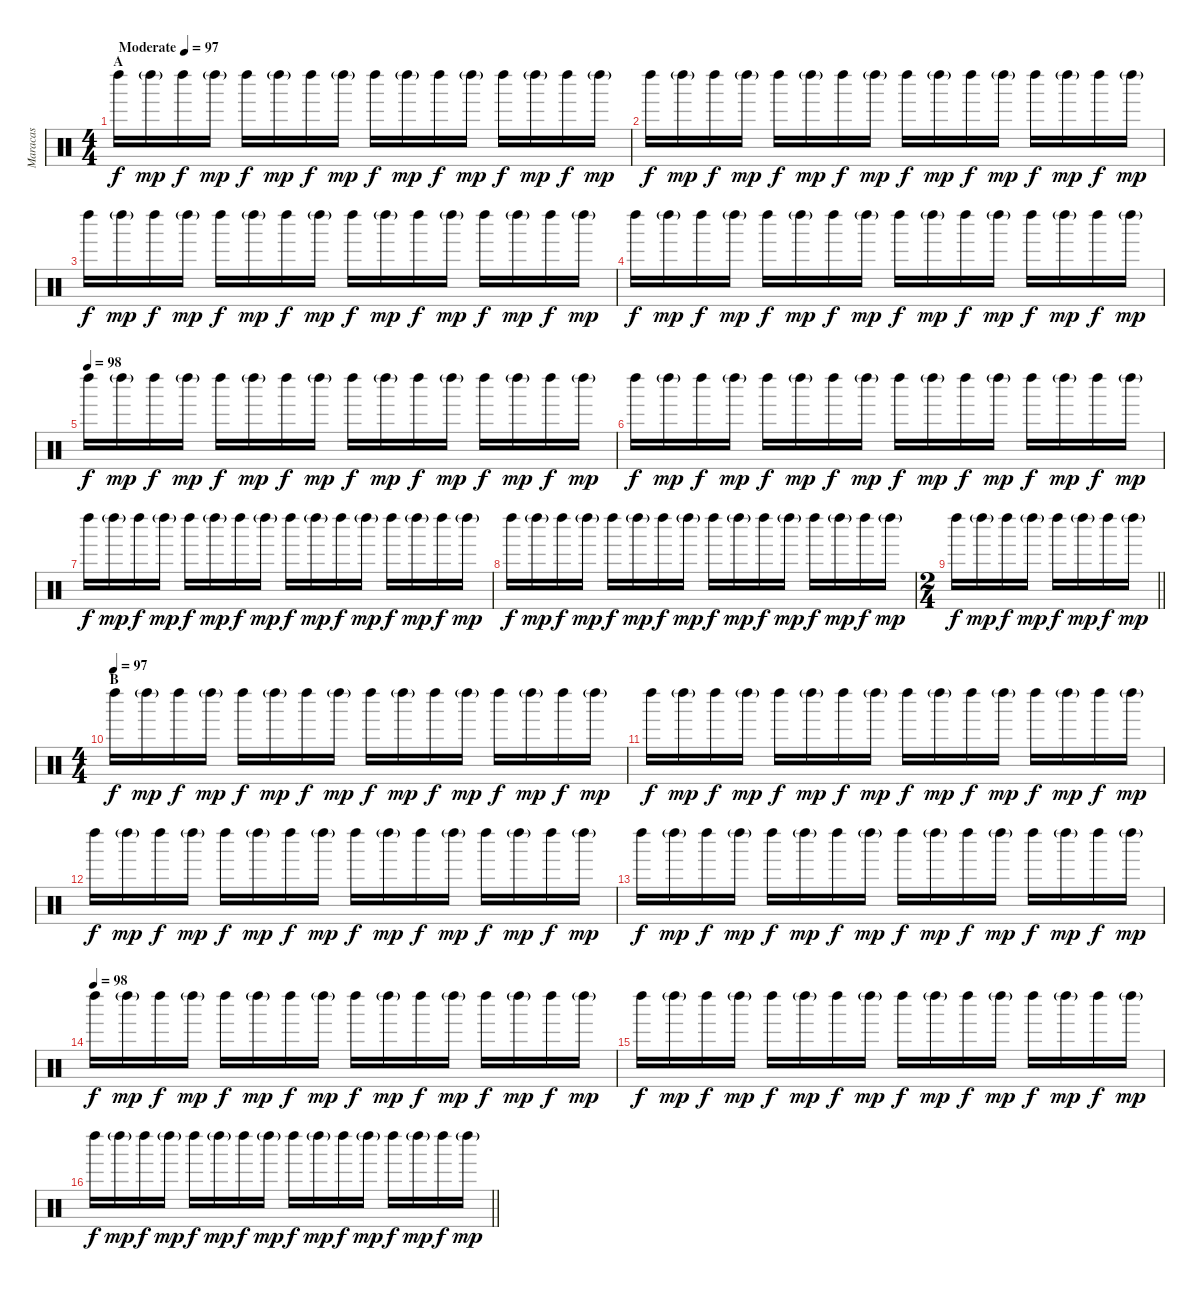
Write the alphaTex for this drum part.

\track ("Maracas" "Maracas") {instrument percussion}
\staff {score}
\articulation defaults
\ts (4 4)
\section ("" "A")
\tempo (97 "Moderate")
\clef neutral
\ks c "Left Maraca (hit)".16{dy f} "Left Maraca (hit)"{g}.16{dy mp} "Left Maraca (hit)".16{dy f} "Left Maraca (hit)"{g}.16{dy mp} "Left Maraca (hit)".16{dy f} "Left Maraca (hit)"{g}.16{dy mp} "Left Maraca (hit)".16{dy f} "Left Maraca (hit)"{g}.16{dy mp} "Left Maraca (hit)".16{dy f} "Left Maraca (hit)"{g}.16{dy mp} "Left Maraca (hit)".16{dy f} "Left Maraca (hit)"{g}.16{dy mp} "Left Maraca (hit)".16{dy f} "Left Maraca (hit)"{g}.16{dy mp} "Left Maraca (hit)".16{dy f} "Left Maraca (hit)"{g}.16{dy mp}
|
"Left Maraca (hit)".16{dy f} "Left Maraca (hit)"{g}.16{dy mp} "Left Maraca (hit)".16{dy f} "Left Maraca (hit)"{g}.16{dy mp} "Left Maraca (hit)".16{dy f} "Left Maraca (hit)"{g}.16{dy mp} "Left Maraca (hit)".16{dy f} "Left Maraca (hit)"{g}.16{dy mp} "Left Maraca (hit)".16{dy f} "Left Maraca (hit)"{g}.16{dy mp} "Left Maraca (hit)".16{dy f} "Left Maraca (hit)"{g}.16{dy mp} "Left Maraca (hit)".16{dy f} "Left Maraca (hit)"{g}.16{dy mp} "Left Maraca (hit)".16{dy f} "Left Maraca (hit)"{g}.16{dy mp} |
"Left Maraca (hit)".16{dy f} "Left Maraca (hit)"{g}.16{dy mp} "Left Maraca (hit)".16{dy f} "Left Maraca (hit)"{g}.16{dy mp} "Left Maraca (hit)".16{dy f} "Left Maraca (hit)"{g}.16{dy mp} "Left Maraca (hit)".16{dy f} "Left Maraca (hit)"{g}.16{dy mp} "Left Maraca (hit)".16{dy f} "Left Maraca (hit)"{g}.16{dy mp} "Left Maraca (hit)".16{dy f} "Left Maraca (hit)"{g}.16{dy mp} "Left Maraca (hit)".16{dy f} "Left Maraca (hit)"{g}.16{dy mp} "Left Maraca (hit)".16{dy f} "Left Maraca (hit)"{g}.16{dy mp} |
"Left Maraca (hit)".16{dy f} "Left Maraca (hit)"{g}.16{dy mp} "Left Maraca (hit)".16{dy f} "Left Maraca (hit)"{g}.16{dy mp} "Left Maraca (hit)".16{dy f} "Left Maraca (hit)"{g}.16{dy mp} "Left Maraca (hit)".16{dy f} "Left Maraca (hit)"{g}.16{dy mp} "Left Maraca (hit)".16{dy f} "Left Maraca (hit)"{g}.16{dy mp} "Left Maraca (hit)".16{dy f} "Left Maraca (hit)"{g}.16{dy mp} "Left Maraca (hit)".16{dy f} "Left Maraca (hit)"{g}.16{dy mp} "Left Maraca (hit)".16{dy f} "Left Maraca (hit)"{g}.16{dy mp} |
\tempo (98)
"Left Maraca (hit)".16{dy f} "Left Maraca (hit)"{g}.16{dy mp} "Left Maraca (hit)".16{dy f} "Left Maraca (hit)"{g}.16{dy mp} "Left Maraca (hit)".16{dy f} "Left Maraca (hit)"{g}.16{dy mp} "Left Maraca (hit)".16{dy f} "Left Maraca (hit)"{g}.16{dy mp} "Left Maraca (hit)".16{dy f} "Left Maraca (hit)"{g}.16{dy mp} "Left Maraca (hit)".16{dy f} "Left Maraca (hit)"{g}.16{dy mp} "Left Maraca (hit)".16{dy f} "Left Maraca (hit)"{g}.16{dy mp} "Left Maraca (hit)".16{dy f} "Left Maraca (hit)"{g}.16{dy mp} |
"Left Maraca (hit)".16{dy f} "Left Maraca (hit)"{g}.16{dy mp} "Left Maraca (hit)".16{dy f} "Left Maraca (hit)"{g}.16{dy mp} "Left Maraca (hit)".16{dy f} "Left Maraca (hit)"{g}.16{dy mp} "Left Maraca (hit)".16{dy f} "Left Maraca (hit)"{g}.16{dy mp} "Left Maraca (hit)".16{dy f} "Left Maraca (hit)"{g}.16{dy mp} "Left Maraca (hit)".16{dy f} "Left Maraca (hit)"{g}.16{dy mp} "Left Maraca (hit)".16{dy f} "Left Maraca (hit)"{g}.16{dy mp} "Left Maraca (hit)".16{dy f} "Left Maraca (hit)"{g}.16{dy mp} |
"Left Maraca (hit)".16{dy f} "Left Maraca (hit)"{g}.16{dy mp} "Left Maraca (hit)".16{dy f} "Left Maraca (hit)"{g}.16{dy mp} "Left Maraca (hit)".16{dy f} "Left Maraca (hit)"{g}.16{dy mp} "Left Maraca (hit)".16{dy f} "Left Maraca (hit)"{g}.16{dy mp} "Left Maraca (hit)".16{dy f} "Left Maraca (hit)"{g}.16{dy mp} "Left Maraca (hit)".16{dy f} "Left Maraca (hit)"{g}.16{dy mp} "Left Maraca (hit)".16{dy f} "Left Maraca (hit)"{g}.16{dy mp} "Left Maraca (hit)".16{dy f} "Left Maraca (hit)"{g}.16{dy mp} |
"Left Maraca (hit)".16{dy f} "Left Maraca (hit)"{g}.16{dy mp} "Left Maraca (hit)".16{dy f} "Left Maraca (hit)"{g}.16{dy mp} "Left Maraca (hit)".16{dy f} "Left Maraca (hit)"{g}.16{dy mp} "Left Maraca (hit)".16{dy f} "Left Maraca (hit)"{g}.16{dy mp} "Left Maraca (hit)".16{dy f} "Left Maraca (hit)"{g}.16{dy mp} "Left Maraca (hit)".16{dy f} "Left Maraca (hit)"{g}.16{dy mp} "Left Maraca (hit)".16{dy f} "Left Maraca (hit)"{g}.16{dy mp} "Left Maraca (hit)".16{dy f} "Left Maraca (hit)"{g}.16{dy mp} |
\ts (2 4)
\barLineRight lightlight "Left Maraca (hit)".16{dy f} "Left Maraca (hit)"{g}.16{dy mp} "Left Maraca (hit)".16{dy f} "Left Maraca (hit)"{g}.16{dy mp} "Left Maraca (hit)".16{dy f} "Left Maraca (hit)"{g}.16{dy mp} "Left Maraca (hit)".16{dy f} "Left Maraca (hit)"{g}.16{dy mp}
|
\ts (4 4)
\section ("" "B")
\tempo (97)
"Left Maraca (hit)".16{dy f} "Left Maraca (hit)"{g}.16{dy mp} "Left Maraca (hit)".16{dy f} "Left Maraca (hit)"{g}.16{dy mp} "Left Maraca (hit)".16{dy f} "Left Maraca (hit)"{g}.16{dy mp} "Left Maraca (hit)".16{dy f} "Left Maraca (hit)"{g}.16{dy mp} "Left Maraca (hit)".16{dy f} "Left Maraca (hit)"{g}.16{dy mp} "Left Maraca (hit)".16{dy f} "Left Maraca (hit)"{g}.16{dy mp} "Left Maraca (hit)".16{dy f} "Left Maraca (hit)"{g}.16{dy mp} "Left Maraca (hit)".16{dy f} "Left Maraca (hit)"{g}.16{dy mp} |
"Left Maraca (hit)".16{dy f} "Left Maraca (hit)"{g}.16{dy mp} "Left Maraca (hit)".16{dy f} "Left Maraca (hit)"{g}.16{dy mp} "Left Maraca (hit)".16{dy f} "Left Maraca (hit)"{g}.16{dy mp} "Left Maraca (hit)".16{dy f} "Left Maraca (hit)"{g}.16{dy mp} "Left Maraca (hit)".16{dy f} "Left Maraca (hit)"{g}.16{dy mp} "Left Maraca (hit)".16{dy f} "Left Maraca (hit)"{g}.16{dy mp} "Left Maraca (hit)".16{dy f} "Left Maraca (hit)"{g}.16{dy mp} "Left Maraca (hit)".16{dy f} "Left Maraca (hit)"{g}.16{dy mp} |
"Left Maraca (hit)".16{dy f} "Left Maraca (hit)"{g}.16{dy mp} "Left Maraca (hit)".16{dy f} "Left Maraca (hit)"{g}.16{dy mp} "Left Maraca (hit)".16{dy f} "Left Maraca (hit)"{g}.16{dy mp} "Left Maraca (hit)".16{dy f} "Left Maraca (hit)"{g}.16{dy mp} "Left Maraca (hit)".16{dy f} "Left Maraca (hit)"{g}.16{dy mp} "Left Maraca (hit)".16{dy f} "Left Maraca (hit)"{g}.16{dy mp} "Left Maraca (hit)".16{dy f} "Left Maraca (hit)"{g}.16{dy mp} "Left Maraca (hit)".16{dy f} "Left Maraca (hit)"{g}.16{dy mp} |
"Left Maraca (hit)".16{dy f} "Left Maraca (hit)"{g}.16{dy mp} "Left Maraca (hit)".16{dy f} "Left Maraca (hit)"{g}.16{dy mp} "Left Maraca (hit)".16{dy f} "Left Maraca (hit)"{g}.16{dy mp} "Left Maraca (hit)".16{dy f} "Left Maraca (hit)"{g}.16{dy mp} "Left Maraca (hit)".16{dy f} "Left Maraca (hit)"{g}.16{dy mp} "Left Maraca (hit)".16{dy f} "Left Maraca (hit)"{g}.16{dy mp} "Left Maraca (hit)".16{dy f} "Left Maraca (hit)"{g}.16{dy mp} "Left Maraca (hit)".16{dy f} "Left Maraca (hit)"{g}.16{dy mp} |
\tempo (98)
"Left Maraca (hit)".16{dy f} "Left Maraca (hit)"{g}.16{dy mp} "Left Maraca (hit)".16{dy f} "Left Maraca (hit)"{g}.16{dy mp} "Left Maraca (hit)".16{dy f} "Left Maraca (hit)"{g}.16{dy mp} "Left Maraca (hit)".16{dy f} "Left Maraca (hit)"{g}.16{dy mp} "Left Maraca (hit)".16{dy f} "Left Maraca (hit)"{g}.16{dy mp} "Left Maraca (hit)".16{dy f} "Left Maraca (hit)"{g}.16{dy mp} "Left Maraca (hit)".16{dy f} "Left Maraca (hit)"{g}.16{dy mp} "Left Maraca (hit)".16{dy f} "Left Maraca (hit)"{g}.16{dy mp} |
"Left Maraca (hit)".16{dy f} "Left Maraca (hit)"{g}.16{dy mp} "Left Maraca (hit)".16{dy f} "Left Maraca (hit)"{g}.16{dy mp} "Left Maraca (hit)".16{dy f} "Left Maraca (hit)"{g}.16{dy mp} "Left Maraca (hit)".16{dy f} "Left Maraca (hit)"{g}.16{dy mp} "Left Maraca (hit)".16{dy f} "Left Maraca (hit)"{g}.16{dy mp} "Left Maraca (hit)".16{dy f} "Left Maraca (hit)"{g}.16{dy mp} "Left Maraca (hit)".16{dy f} "Left Maraca (hit)"{g}.16{dy mp} "Left Maraca (hit)".16{dy f} "Left Maraca (hit)"{g}.16{dy mp} |
\barLineRight lightlight "Left Maraca (hit)".16{dy f} "Left Maraca (hit)"{g}.16{dy mp} "Left Maraca (hit)".16{dy f} "Left Maraca (hit)"{g}.16{dy mp} "Left Maraca (hit)".16{dy f} "Left Maraca (hit)"{g}.16{dy mp} "Left Maraca (hit)".16{dy f} "Left Maraca (hit)"{g}.16{dy mp} "Left Maraca (hit)".16{dy f} "Left Maraca (hit)"{g}.16{dy mp} "Left Maraca (hit)".16{dy f} "Left Maraca (hit)"{g}.16{dy mp} "Left Maraca (hit)".16{dy f} "Left Maraca (hit)"{g}.16{dy mp} "Left Maraca (hit)".16{dy f} "Left Maraca (hit)"{g}.16{dy mp}
